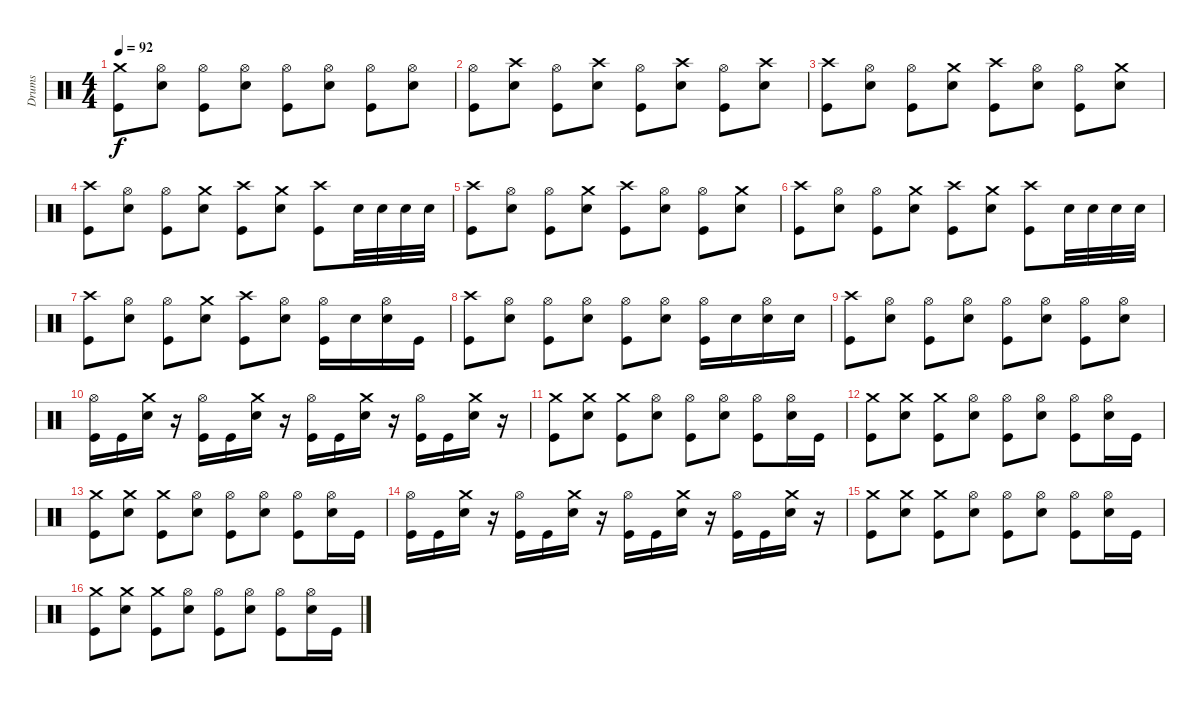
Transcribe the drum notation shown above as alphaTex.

\track ("Drums" "Drums") {instrument percussion}
\staff {score}
\articulation defaults
\ts (4 4)
\tempo 92
\clef neutral
\ks c
("Crash medium (hit)" "Kick (hit)").8{dy f} ("Hi-Hat (open)" "Electric Snare (hit)").8 ("Hi-Hat (open)" "Kick (hit)").8 ("Hi-Hat (open)" "Electric Snare (hit)").8 ("Hi-Hat (open)" "Kick (hit)").8 ("Hi-Hat (open)" "Electric Snare (hit)").8 ("Hi-Hat (open)" "Kick (hit)").8 ("Hi-Hat (open)" "Electric Snare (hit)").8 |
("Hi-Hat (open)" "Kick (hit)").8 ("Crash high (hit)" "Electric Snare (hit)").8 ("Hi-Hat (open)" "Kick (hit)").8 ("Crash high (hit)" "Electric Snare (hit)").8 ("Hi-Hat (open)" "Kick (hit)").8 ("Crash high (hit)" "Electric Snare (hit)").8 ("Hi-Hat (open)" "Kick (hit)").8 ("Crash high (hit)" "Electric Snare (hit)").8 |
("Crash high (hit)" "Kick (hit)").8 ("Hi-Hat (open)" "Electric Snare (hit)").8 ("Hi-Hat (open)" "Kick (hit)").8 ("Crash medium (hit)" "Electric Snare (hit)").8 ("Crash high (hit)" "Kick (hit)").8 ("Hi-Hat (open)" "Electric Snare (hit)").8 ("Hi-Hat (open)" "Kick (hit)").8 ("Crash medium (hit)" "Electric Snare (hit)").8 |
("Crash high (hit)" "Kick (hit)").8 ("Hi-Hat (open)" "Electric Snare (hit)").8 ("Hi-Hat (open)" "Kick (hit)").8 ("Crash medium (hit)" "Electric Snare (hit)").8 ("Crash high (hit)" "Kick (hit)").8 ("Crash medium (hit)" "Electric Snare (hit)").8 ("Crash high (hit)" "Kick (hit)").8 "Electric Snare (hit)".32 "Electric Snare (hit)".32 "Electric Snare (hit)".32 "Electric Snare (hit)".32 |
("Crash high (hit)" "Kick (hit)").8 ("Hi-Hat (open)" "Electric Snare (hit)").8 ("Hi-Hat (open)" "Kick (hit)").8 ("Crash medium (hit)" "Electric Snare (hit)").8 ("Crash high (hit)" "Kick (hit)").8 ("Hi-Hat (open)" "Electric Snare (hit)").8 ("Hi-Hat (open)" "Kick (hit)").8 ("Crash medium (hit)" "Electric Snare (hit)").8 |
("Crash high (hit)" "Kick (hit)").8 ("Hi-Hat (open)" "Electric Snare (hit)").8 ("Hi-Hat (open)" "Kick (hit)").8 ("Crash medium (hit)" "Electric Snare (hit)").8 ("Crash high (hit)" "Kick (hit)").8 ("Crash medium (hit)" "Electric Snare (hit)").8 ("Crash high (hit)" "Kick (hit)").8 "Electric Snare (hit)".32 "Electric Snare (hit)".32 "Electric Snare (hit)".32 "Electric Snare (hit)".32 |
("Crash high (hit)" "Kick (hit)").8 ("Hi-Hat (open)" "Electric Snare (hit)").8 ("Hi-Hat (open)" "Kick (hit)").8 ("Crash medium (hit)" "Electric Snare (hit)").8 ("Crash high (hit)" "Kick (hit)").8 ("Hi-Hat (open)" "Electric Snare (hit)").8 ("Hi-Hat (open)" "Kick (hit)").16 "Electric Snare (hit)".16 ("Hi-Hat (open)" "Electric Snare (hit)").16 "Kick (hit)".16 |
("Crash high (hit)" "Kick (hit)").8 ("Hi-Hat (open)" "Electric Snare (hit)").8 ("Hi-Hat (open)" "Kick (hit)").8 ("Hi-Hat (open)" "Electric Snare (hit)").8 ("Hi-Hat (open)" "Kick (hit)").8 ("Hi-Hat (open)" "Electric Snare (hit)").8 ("Hi-Hat (open)" "Kick (hit)").16 "Electric Snare (hit)".16 ("Hi-Hat (open)" "Electric Snare (hit)").16 "Electric Snare (hit)".16 |
("Crash high (hit)" "Kick (hit)").8 ("Hi-Hat (open)" "Electric Snare (hit)").8 ("Hi-Hat (open)" "Kick (hit)").8 ("Hi-Hat (open)" "Electric Snare (hit)").8 ("Hi-Hat (open)" "Kick (hit)").8 ("Hi-Hat (open)" "Electric Snare (hit)").8 ("Hi-Hat (open)" "Kick (hit)").8 ("Hi-Hat (open)" "Electric Snare (hit)").8 |
("Hi-Hat (open)" "Kick (hit)").16 "Kick (hit)".16 ("Crash medium (hit)" "Electric Snare (hit)").16 r.16 ("Hi-Hat (open)" "Kick (hit)").16 "Kick (hit)".16 ("Crash medium (hit)" "Electric Snare (hit)").16 r.16 ("Hi-Hat (open)" "Kick (hit)").16 "Kick (hit)".16 ("Crash medium (hit)" "Electric Snare (hit)").16 r.16 ("Hi-Hat (open)" "Kick (hit)").16 "Kick (hit)".16 ("Crash medium (hit)" "Electric Snare (hit)").16 r.16 |
("Crash medium (hit)" "Kick (hit)").8 ("Crash medium (hit)" "Electric Snare (hit)").8 ("Crash medium (hit)" "Kick (hit)").8 ("Hi-Hat (open)" "Electric Snare (hit)").8 ("Hi-Hat (open)" "Kick (hit)").8 ("Hi-Hat (open)" "Electric Snare (hit)").8 ("Hi-Hat (open)" "Kick (hit)").8 ("Hi-Hat (open)" "Electric Snare (hit)").16 "Kick (hit)".16 |
("Crash medium (hit)" "Kick (hit)").8 ("Crash medium (hit)" "Electric Snare (hit)").8 ("Crash medium (hit)" "Kick (hit)").8 ("Hi-Hat (open)" "Electric Snare (hit)").8 ("Hi-Hat (open)" "Kick (hit)").8 ("Hi-Hat (open)" "Electric Snare (hit)").8 ("Hi-Hat (open)" "Kick (hit)").8 ("Hi-Hat (open)" "Electric Snare (hit)").16 "Kick (hit)".16 |
("Crash medium (hit)" "Kick (hit)").8 ("Crash medium (hit)" "Electric Snare (hit)").8 ("Crash medium (hit)" "Kick (hit)").8 ("Hi-Hat (open)" "Electric Snare (hit)").8 ("Hi-Hat (open)" "Kick (hit)").8 ("Hi-Hat (open)" "Electric Snare (hit)").8 ("Hi-Hat (open)" "Kick (hit)").8 ("Hi-Hat (open)" "Electric Snare (hit)").16 "Kick (hit)".16 |
("Hi-Hat (open)" "Kick (hit)").16 "Kick (hit)".16 ("Crash medium (hit)" "Electric Snare (hit)").16 r.16 ("Hi-Hat (open)" "Kick (hit)").16 "Kick (hit)".16 ("Crash medium (hit)" "Electric Snare (hit)").16 r.16 ("Hi-Hat (open)" "Kick (hit)").16 "Kick (hit)".16 ("Crash medium (hit)" "Electric Snare (hit)").16 r.16 ("Hi-Hat (open)" "Kick (hit)").16 "Kick (hit)".16 ("Crash medium (hit)" "Electric Snare (hit)").16 r.16 |
("Crash medium (hit)" "Kick (hit)").8 ("Crash medium (hit)" "Electric Snare (hit)").8 ("Crash medium (hit)" "Kick (hit)").8 ("Hi-Hat (open)" "Electric Snare (hit)").8 ("Hi-Hat (open)" "Kick (hit)").8 ("Hi-Hat (open)" "Electric Snare (hit)").8 ("Hi-Hat (open)" "Kick (hit)").8 ("Hi-Hat (open)" "Electric Snare (hit)").16 "Kick (hit)".16 |
("Crash medium (hit)" "Kick (hit)").8 ("Crash medium (hit)" "Electric Snare (hit)").8 ("Crash medium (hit)" "Kick (hit)").8 ("Hi-Hat (open)" "Electric Snare (hit)").8 ("Hi-Hat (open)" "Kick (hit)").8 ("Hi-Hat (open)" "Electric Snare (hit)").8 ("Hi-Hat (open)" "Kick (hit)").8 ("Hi-Hat (open)" "Electric Snare (hit)").16 "Kick (hit)".16
